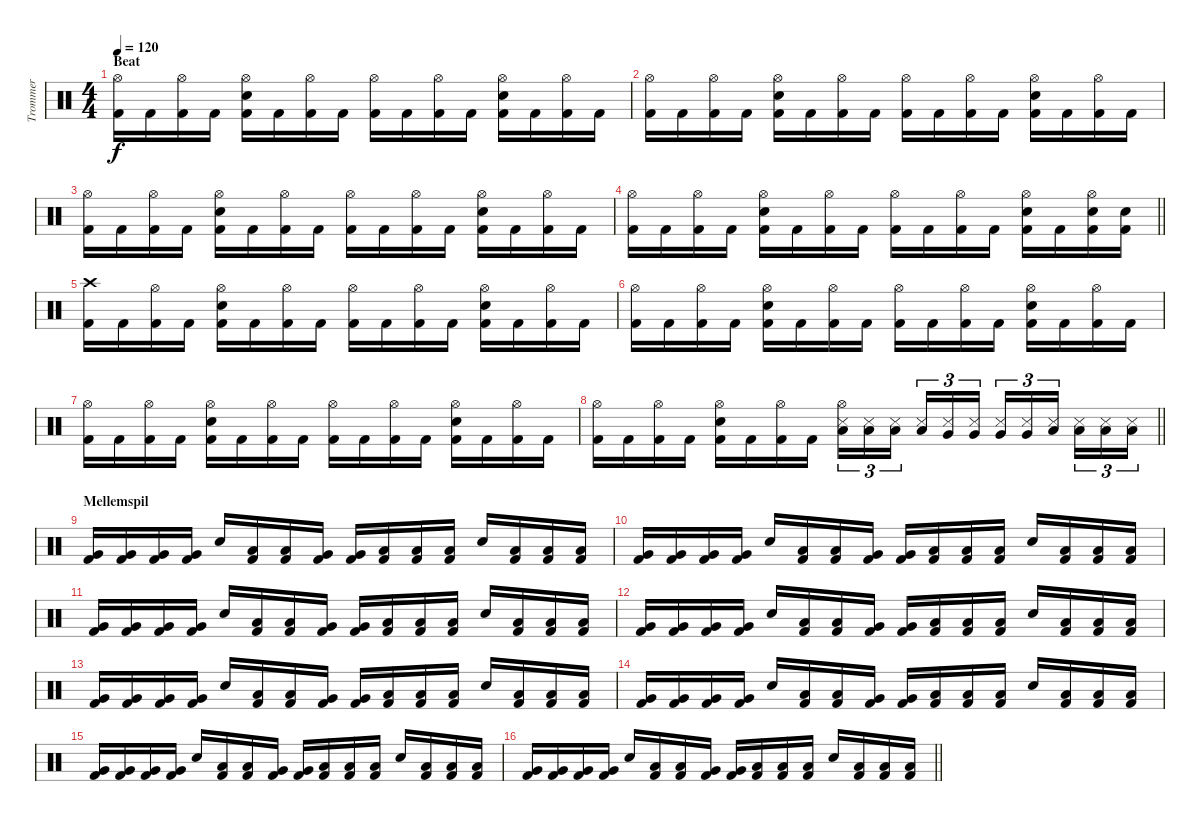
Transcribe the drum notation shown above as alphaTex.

\track ("Trommer" "Trommer") {instrument percussion}
\staff {score}
\articulation defaults
\ts (4 4)
\section ("" "Beat")
\tempo 120
\clef neutral
\ks c
("Hi-Hat (open)" "Kick (hit) 2").16{dy f} "Kick (hit) 2".16 ("Hi-Hat (open)" "Kick (hit) 2").16 "Kick (hit) 2".16 ("Hi-Hat (open)" "Electric Snare (hit)" "Kick (hit) 2").16 "Kick (hit) 2".16 ("Hi-Hat (open)" "Kick (hit) 2").16 "Kick (hit) 2".16 ("Hi-Hat (open)" "Kick (hit) 2").16 "Kick (hit) 2".16 ("Hi-Hat (open)" "Kick (hit) 2").16 "Kick (hit) 2".16 ("Hi-Hat (open)" "Electric Snare (hit)" "Kick (hit) 2").16 "Kick (hit) 2".16 ("Hi-Hat (open)" "Kick (hit) 2").16 "Kick (hit) 2".16 |
("Hi-Hat (open)" "Kick (hit) 2").16 "Kick (hit) 2".16 ("Hi-Hat (open)" "Kick (hit) 2").16 "Kick (hit) 2".16 ("Hi-Hat (open)" "Electric Snare (hit)" "Kick (hit) 2").16 "Kick (hit) 2".16 ("Hi-Hat (open)" "Kick (hit) 2").16 "Kick (hit) 2".16 ("Hi-Hat (open)" "Kick (hit) 2").16 "Kick (hit) 2".16 ("Hi-Hat (open)" "Kick (hit) 2").16 "Kick (hit) 2".16 ("Hi-Hat (open)" "Electric Snare (hit)" "Kick (hit) 2").16 "Kick (hit) 2".16 ("Hi-Hat (open)" "Kick (hit) 2").16 "Kick (hit) 2".16 |
("Hi-Hat (open)" "Kick (hit) 2").16 "Kick (hit) 2".16 ("Hi-Hat (open)" "Kick (hit) 2").16 "Kick (hit) 2".16 ("Hi-Hat (open)" "Electric Snare (hit)" "Kick (hit) 2").16 "Kick (hit) 2".16 ("Hi-Hat (open)" "Kick (hit) 2").16 "Kick (hit) 2".16 ("Hi-Hat (open)" "Kick (hit) 2").16 "Kick (hit) 2".16 ("Hi-Hat (open)" "Kick (hit) 2").16 "Kick (hit) 2".16 ("Hi-Hat (open)" "Electric Snare (hit)" "Kick (hit) 2").16 "Kick (hit) 2".16 ("Hi-Hat (open)" "Kick (hit) 2").16 "Kick (hit) 2".16 |
\barLineRight lightlight
("Hi-Hat (open)" "Kick (hit) 2").16 "Kick (hit) 2".16 ("Hi-Hat (open)" "Kick (hit) 2").16 "Kick (hit) 2".16 ("Hi-Hat (open)" "Electric Snare (hit)" "Kick (hit) 2").16 "Kick (hit) 2".16 ("Hi-Hat (open)" "Kick (hit) 2").16 "Kick (hit) 2".16 ("Hi-Hat (open)" "Kick (hit) 2").16 "Kick (hit) 2".16 ("Hi-Hat (open)" "Kick (hit) 2").16 "Kick (hit) 2".16 ("Hi-Hat (open)" "Electric Snare (hit)" "Kick (hit) 2").16 "Kick (hit) 2".16 ("Hi-Hat (open)" "Electric Snare (hit)" "Kick (hit) 2").16 ("Electric Snare (hit)" "Kick (hit) 2").16 |
("Crash high (hit)" "Kick (hit) 2").16 "Kick (hit) 2".16 ("Hi-Hat (open)" "Kick (hit) 2").16 "Kick (hit) 2".16 ("Hi-Hat (open)" "Electric Snare (hit)" "Kick (hit) 2").16 "Kick (hit) 2".16 ("Hi-Hat (open)" "Kick (hit) 2").16 "Kick (hit) 2".16 ("Hi-Hat (open)" "Kick (hit) 2").16 "Kick (hit) 2".16 ("Hi-Hat (open)" "Kick (hit) 2").16 "Kick (hit) 2".16 ("Hi-Hat (open)" "Electric Snare (hit)" "Kick (hit) 2").16 "Kick (hit) 2".16 ("Hi-Hat (open)" "Kick (hit) 2").16 "Kick (hit) 2".16 |
("Hi-Hat (open)" "Kick (hit) 2").16 "Kick (hit) 2".16 ("Hi-Hat (open)" "Kick (hit) 2").16 "Kick (hit) 2".16 ("Hi-Hat (open)" "Electric Snare (hit)" "Kick (hit) 2").16 "Kick (hit) 2".16 ("Hi-Hat (open)" "Kick (hit) 2").16 "Kick (hit) 2".16 ("Hi-Hat (open)" "Kick (hit) 2").16 "Kick (hit) 2".16 ("Hi-Hat (open)" "Kick (hit) 2").16 "Kick (hit) 2".16 ("Hi-Hat (open)" "Electric Snare (hit)" "Kick (hit) 2").16 "Kick (hit) 2".16 ("Hi-Hat (open)" "Kick (hit) 2").16 "Kick (hit) 2".16 |
("Hi-Hat (open)" "Kick (hit) 2").16 "Kick (hit) 2".16 ("Hi-Hat (open)" "Kick (hit) 2").16 "Kick (hit) 2".16 ("Hi-Hat (open)" "Electric Snare (hit)" "Kick (hit) 2").16 "Kick (hit) 2".16 ("Hi-Hat (open)" "Kick (hit) 2").16 "Kick (hit) 2".16 ("Hi-Hat (open)" "Kick (hit) 2").16 "Kick (hit) 2".16 ("Hi-Hat (open)" "Kick (hit) 2").16 "Kick (hit) 2".16 ("Hi-Hat (open)" "Electric Snare (hit)" "Kick (hit) 2").16 "Kick (hit) 2".16 ("Hi-Hat (open)" "Kick (hit) 2").16 "Kick (hit) 2".16 |
\barLineRight lightlight
("Hi-Hat (open)" "Kick (hit) 2").16 "Kick (hit) 2".16 ("Hi-Hat (open)" "Kick (hit) 2").16 "Kick (hit) 2".16 ("Hi-Hat (open)" "Electric Snare (hit)" "Kick (hit) 2").16 "Kick (hit) 2".16 ("Hi-Hat (open)" "Kick (hit) 2").16 "Kick (hit) 2".16 ("Hi-Hat (open)" "Snare (side stick) 3" "Low Tom (hit)").16{tu (3 2)} ("Snare (side stick) 3" "Low Tom (hit)").16{tu (3 2)} ("Snare (side stick) 3" "Low Tom (hit)").16{tu (3 2) beam splitsecondary} ("Snare (side stick) 3" "Low Tom (hit)").16{tu (3 2)} ("Snare (side stick) 3" "Very Low Tom (hit)").16{tu (3 2)} ("Snare (side stick) 3" "Very Low Tom (hit)").16{tu (3 2)} ("Snare (side stick) 3" "Very Low Tom (hit)").16{tu (3 2)} ("Snare (side stick) 3" "Very Low Tom (hit)").16{tu (3 2)} ("Snare (side stick) 3" "Low Floor Tom (hit)").16{tu (3 2) beam splitsecondary} ("Snare (side stick) 3" "Low Floor Tom (hit)").16{tu (3 2)} ("Snare (side stick) 3" "Low Floor Tom (hit)").16{tu (3 2)} ("Snare (side stick) 3" "Low Floor Tom (hit)").16{tu (3 2)} |
\section ("" "Mellemspil")
("Very Low Tom (hit)" "Kick (hit) 2").16 ("Very Low Tom (hit)" "Kick (hit) 2").16 ("Very Low Tom (hit)" "Kick (hit) 2").16 ("Very Low Tom (hit)" "Kick (hit) 2").16 "Snare (hit) 2".16 ("Low Tom (hit)" "Kick (hit) 2").16 ("Low Tom (hit)" "Kick (hit) 2").16 ("Very Low Tom (hit)" "Kick (hit) 2").16 ("Very Low Tom (hit)" "Kick (hit) 2").16 ("Low Floor Tom (hit)" "Kick (hit) 2").16 ("Low Floor Tom (hit)" "Kick (hit) 2").16 ("Low Floor Tom (hit)" "Kick (hit) 2").16 "Snare (hit) 2".16 ("Low Tom (hit)" "Kick (hit) 2").16 ("Low Tom (hit)" "Kick (hit) 2").16 ("Low Tom (hit)" "Kick (hit) 2").16 |
("Very Low Tom (hit)" "Kick (hit) 2").16 ("Very Low Tom (hit)" "Kick (hit) 2").16 ("Very Low Tom (hit)" "Kick (hit) 2").16 ("Very Low Tom (hit)" "Kick (hit) 2").16 "Snare (hit) 2".16 ("Low Tom (hit)" "Kick (hit) 2").16 ("Low Tom (hit)" "Kick (hit) 2").16 ("Very Low Tom (hit)" "Kick (hit) 2").16 ("Very Low Tom (hit)" "Kick (hit) 2").16 ("Low Floor Tom (hit)" "Kick (hit) 2").16 ("Low Floor Tom (hit)" "Kick (hit) 2").16 ("Low Floor Tom (hit)" "Kick (hit) 2").16 "Snare (hit) 2".16 ("Low Tom (hit)" "Kick (hit) 2").16 ("Low Tom (hit)" "Kick (hit) 2").16 ("Low Tom (hit)" "Kick (hit) 2").16 |
("Very Low Tom (hit)" "Kick (hit) 2").16 ("Very Low Tom (hit)" "Kick (hit) 2").16 ("Very Low Tom (hit)" "Kick (hit) 2").16 ("Very Low Tom (hit)" "Kick (hit) 2").16 "Snare (hit) 2".16 ("Low Tom (hit)" "Kick (hit) 2").16 ("Low Tom (hit)" "Kick (hit) 2").16 ("Very Low Tom (hit)" "Kick (hit) 2").16 ("Very Low Tom (hit)" "Kick (hit) 2").16 ("Low Floor Tom (hit)" "Kick (hit) 2").16 ("Low Floor Tom (hit)" "Kick (hit) 2").16 ("Low Floor Tom (hit)" "Kick (hit) 2").16 "Snare (hit) 2".16 ("Low Tom (hit)" "Kick (hit) 2").16 ("Low Tom (hit)" "Kick (hit) 2").16 ("Low Tom (hit)" "Kick (hit) 2").16 |
("Very Low Tom (hit)" "Kick (hit) 2").16 ("Very Low Tom (hit)" "Kick (hit) 2").16 ("Very Low Tom (hit)" "Kick (hit) 2").16 ("Very Low Tom (hit)" "Kick (hit) 2").16 "Snare (hit) 2".16 ("Low Tom (hit)" "Kick (hit) 2").16 ("Low Tom (hit)" "Kick (hit) 2").16 ("Very Low Tom (hit)" "Kick (hit) 2").16 ("Very Low Tom (hit)" "Kick (hit) 2").16 ("Low Floor Tom (hit)" "Kick (hit) 2").16 ("Low Floor Tom (hit)" "Kick (hit) 2").16 ("Low Floor Tom (hit)" "Kick (hit) 2").16 "Snare (hit) 2".16 ("Low Tom (hit)" "Kick (hit) 2").16 ("Low Tom (hit)" "Kick (hit) 2").16 ("Low Tom (hit)" "Kick (hit) 2").16 |
("Very Low Tom (hit)" "Kick (hit) 2").16 ("Very Low Tom (hit)" "Kick (hit) 2").16 ("Very Low Tom (hit)" "Kick (hit) 2").16 ("Very Low Tom (hit)" "Kick (hit) 2").16 "Snare (hit) 2".16 ("Low Tom (hit)" "Kick (hit) 2").16 ("Low Tom (hit)" "Kick (hit) 2").16 ("Very Low Tom (hit)" "Kick (hit) 2").16 ("Very Low Tom (hit)" "Kick (hit) 2").16 ("Low Floor Tom (hit)" "Kick (hit) 2").16 ("Low Floor Tom (hit)" "Kick (hit) 2").16 ("Low Floor Tom (hit)" "Kick (hit) 2").16 "Snare (hit) 2".16 ("Low Tom (hit)" "Kick (hit) 2").16 ("Low Tom (hit)" "Kick (hit) 2").16 ("Low Tom (hit)" "Kick (hit) 2").16 |
("Very Low Tom (hit)" "Kick (hit) 2").16 ("Very Low Tom (hit)" "Kick (hit) 2").16 ("Very Low Tom (hit)" "Kick (hit) 2").16 ("Very Low Tom (hit)" "Kick (hit) 2").16 "Snare (hit) 2".16 ("Low Tom (hit)" "Kick (hit) 2").16 ("Low Tom (hit)" "Kick (hit) 2").16 ("Very Low Tom (hit)" "Kick (hit) 2").16 ("Very Low Tom (hit)" "Kick (hit) 2").16 ("Low Floor Tom (hit)" "Kick (hit) 2").16 ("Low Floor Tom (hit)" "Kick (hit) 2").16 ("Low Floor Tom (hit)" "Kick (hit) 2").16 "Snare (hit) 2".16 ("Low Tom (hit)" "Kick (hit) 2").16 ("Low Tom (hit)" "Kick (hit) 2").16 ("Low Tom (hit)" "Kick (hit) 2").16 |
("Very Low Tom (hit)" "Kick (hit) 2").16 ("Very Low Tom (hit)" "Kick (hit) 2").16 ("Very Low Tom (hit)" "Kick (hit) 2").16 ("Very Low Tom (hit)" "Kick (hit) 2").16 "Snare (hit) 2".16 ("Low Tom (hit)" "Kick (hit) 2").16 ("Low Tom (hit)" "Kick (hit) 2").16 ("Very Low Tom (hit)" "Kick (hit) 2").16 ("Very Low Tom (hit)" "Kick (hit) 2").16 ("Low Floor Tom (hit)" "Kick (hit) 2").16 ("Low Floor Tom (hit)" "Kick (hit) 2").16 ("Low Floor Tom (hit)" "Kick (hit) 2").16 "Snare (hit) 2".16 ("Low Tom (hit)" "Kick (hit) 2").16 ("Low Tom (hit)" "Kick (hit) 2").16 ("Low Tom (hit)" "Kick (hit) 2").16 |
\barLineRight lightlight
("Very Low Tom (hit)" "Kick (hit) 2").16 ("Very Low Tom (hit)" "Kick (hit) 2").16 ("Very Low Tom (hit)" "Kick (hit) 2").16 ("Very Low Tom (hit)" "Kick (hit) 2").16 "Snare (hit) 2".16 ("Low Tom (hit)" "Kick (hit) 2").16 ("Low Tom (hit)" "Kick (hit) 2").16 ("Very Low Tom (hit)" "Kick (hit) 2").16 ("Very Low Tom (hit)" "Kick (hit) 2").16 ("Low Floor Tom (hit)" "Kick (hit) 2").16 ("Low Floor Tom (hit)" "Kick (hit) 2").16 ("Low Floor Tom (hit)" "Kick (hit) 2").16 "Snare (hit) 2".16 ("Low Tom (hit)" "Kick (hit) 2").16 ("Low Tom (hit)" "Kick (hit) 2").16 ("Low Tom (hit)" "Kick (hit) 2").16
